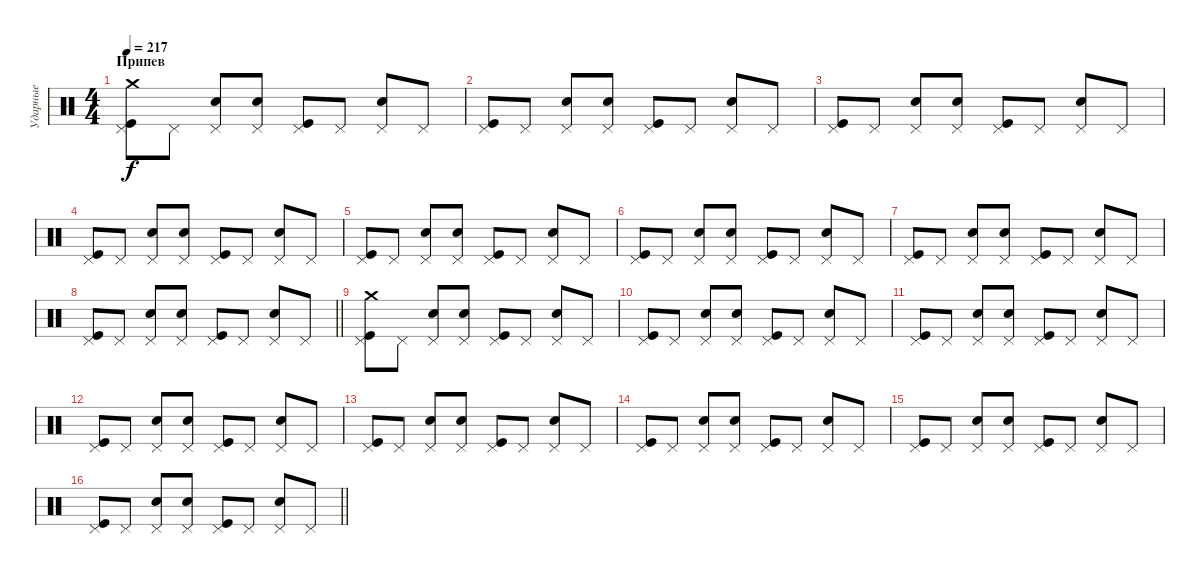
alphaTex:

\track ("Ударные" "Ударные") {instrument percussion}
\staff {score}
\articulation defaults
\ts (4 4)
\section ("" "Припев")
\tempo 217
\clef neutral
\ks c
("Pedal Hi-Hat (hit)" "Kick (hit)" "Crash medium (hit)").8{dy f} "Pedal Hi-Hat (hit)".8 ("Pedal Hi-Hat (hit)" "Snare (hit) 2").8 ("Pedal Hi-Hat (hit)" "Snare (hit) 2").8 ("Pedal Hi-Hat (hit)" "Kick (hit)").8 "Pedal Hi-Hat (hit)".8 ("Pedal Hi-Hat (hit)" "Snare (hit) 2").8 "Pedal Hi-Hat (hit)".8 |
("Pedal Hi-Hat (hit)" "Kick (hit)").8 "Pedal Hi-Hat (hit)".8 ("Pedal Hi-Hat (hit)" "Snare (hit) 2").8 ("Pedal Hi-Hat (hit)" "Snare (hit) 2").8 ("Pedal Hi-Hat (hit)" "Kick (hit)").8 "Pedal Hi-Hat (hit)".8 ("Pedal Hi-Hat (hit)" "Snare (hit) 2").8 "Pedal Hi-Hat (hit)".8 |
("Pedal Hi-Hat (hit)" "Kick (hit)").8 "Pedal Hi-Hat (hit)".8 ("Pedal Hi-Hat (hit)" "Snare (hit) 2").8 ("Pedal Hi-Hat (hit)" "Snare (hit) 2").8 ("Pedal Hi-Hat (hit)" "Kick (hit)").8 "Pedal Hi-Hat (hit)".8 ("Pedal Hi-Hat (hit)" "Snare (hit) 2").8 "Pedal Hi-Hat (hit)".8 |
("Pedal Hi-Hat (hit)" "Kick (hit)").8 "Pedal Hi-Hat (hit)".8 ("Pedal Hi-Hat (hit)" "Snare (hit) 2").8 ("Pedal Hi-Hat (hit)" "Snare (hit) 2").8 ("Pedal Hi-Hat (hit)" "Kick (hit)").8 "Pedal Hi-Hat (hit)".8 ("Pedal Hi-Hat (hit)" "Snare (hit) 2").8 "Pedal Hi-Hat (hit)".8 |
("Pedal Hi-Hat (hit)" "Kick (hit)").8 "Pedal Hi-Hat (hit)".8 ("Pedal Hi-Hat (hit)" "Snare (hit) 2").8 ("Pedal Hi-Hat (hit)" "Snare (hit) 2").8 ("Pedal Hi-Hat (hit)" "Kick (hit)").8 "Pedal Hi-Hat (hit)".8 ("Pedal Hi-Hat (hit)" "Snare (hit) 2").8 "Pedal Hi-Hat (hit)".8 |
("Pedal Hi-Hat (hit)" "Kick (hit)").8 "Pedal Hi-Hat (hit)".8 ("Pedal Hi-Hat (hit)" "Snare (hit) 2").8 ("Pedal Hi-Hat (hit)" "Snare (hit) 2").8 ("Pedal Hi-Hat (hit)" "Kick (hit)").8 "Pedal Hi-Hat (hit)".8 ("Pedal Hi-Hat (hit)" "Snare (hit) 2").8 "Pedal Hi-Hat (hit)".8 |
("Pedal Hi-Hat (hit)" "Kick (hit)").8 "Pedal Hi-Hat (hit)".8 ("Pedal Hi-Hat (hit)" "Snare (hit) 2").8 ("Pedal Hi-Hat (hit)" "Snare (hit) 2").8 ("Pedal Hi-Hat (hit)" "Kick (hit)").8 "Pedal Hi-Hat (hit)".8 ("Pedal Hi-Hat (hit)" "Snare (hit) 2").8 "Pedal Hi-Hat (hit)".8 |
\barLineRight lightlight
("Pedal Hi-Hat (hit)" "Kick (hit)").8 "Pedal Hi-Hat (hit)".8 ("Pedal Hi-Hat (hit)" "Snare (hit) 2").8 ("Pedal Hi-Hat (hit)" "Snare (hit) 2").8 ("Pedal Hi-Hat (hit)" "Kick (hit)").8 "Pedal Hi-Hat (hit)".8 ("Pedal Hi-Hat (hit)" "Snare (hit) 2").8 "Pedal Hi-Hat (hit)".8 |
("Pedal Hi-Hat (hit)" "Kick (hit)" "Crash medium (hit)").8 "Pedal Hi-Hat (hit)".8 ("Pedal Hi-Hat (hit)" "Snare (hit) 2").8 ("Pedal Hi-Hat (hit)" "Snare (hit) 2").8 ("Pedal Hi-Hat (hit)" "Kick (hit)").8 "Pedal Hi-Hat (hit)".8 ("Pedal Hi-Hat (hit)" "Snare (hit) 2").8 "Pedal Hi-Hat (hit)".8 |
("Pedal Hi-Hat (hit)" "Kick (hit)").8 "Pedal Hi-Hat (hit)".8 ("Pedal Hi-Hat (hit)" "Snare (hit) 2").8 ("Pedal Hi-Hat (hit)" "Snare (hit) 2").8 ("Pedal Hi-Hat (hit)" "Kick (hit)").8 "Pedal Hi-Hat (hit)".8 ("Pedal Hi-Hat (hit)" "Snare (hit) 2").8 "Pedal Hi-Hat (hit)".8 |
("Pedal Hi-Hat (hit)" "Kick (hit)").8 "Pedal Hi-Hat (hit)".8 ("Pedal Hi-Hat (hit)" "Snare (hit) 2").8 ("Pedal Hi-Hat (hit)" "Snare (hit) 2").8 ("Pedal Hi-Hat (hit)" "Kick (hit)").8 "Pedal Hi-Hat (hit)".8 ("Pedal Hi-Hat (hit)" "Snare (hit) 2").8 "Pedal Hi-Hat (hit)".8 |
("Pedal Hi-Hat (hit)" "Kick (hit)").8 "Pedal Hi-Hat (hit)".8 ("Pedal Hi-Hat (hit)" "Snare (hit) 2").8 ("Pedal Hi-Hat (hit)" "Snare (hit) 2").8 ("Pedal Hi-Hat (hit)" "Kick (hit)").8 "Pedal Hi-Hat (hit)".8 ("Pedal Hi-Hat (hit)" "Snare (hit) 2").8 "Pedal Hi-Hat (hit)".8 |
("Pedal Hi-Hat (hit)" "Kick (hit)").8 "Pedal Hi-Hat (hit)".8 ("Pedal Hi-Hat (hit)" "Snare (hit) 2").8 ("Pedal Hi-Hat (hit)" "Snare (hit) 2").8 ("Pedal Hi-Hat (hit)" "Kick (hit)").8 "Pedal Hi-Hat (hit)".8 ("Pedal Hi-Hat (hit)" "Snare (hit) 2").8 "Pedal Hi-Hat (hit)".8 |
("Pedal Hi-Hat (hit)" "Kick (hit)").8 "Pedal Hi-Hat (hit)".8 ("Pedal Hi-Hat (hit)" "Snare (hit) 2").8 ("Pedal Hi-Hat (hit)" "Snare (hit) 2").8 ("Pedal Hi-Hat (hit)" "Kick (hit)").8 "Pedal Hi-Hat (hit)".8 ("Pedal Hi-Hat (hit)" "Snare (hit) 2").8 "Pedal Hi-Hat (hit)".8 |
("Pedal Hi-Hat (hit)" "Kick (hit)").8 "Pedal Hi-Hat (hit)".8 ("Pedal Hi-Hat (hit)" "Snare (hit) 2").8 ("Pedal Hi-Hat (hit)" "Snare (hit) 2").8 ("Pedal Hi-Hat (hit)" "Kick (hit)").8 "Pedal Hi-Hat (hit)".8 ("Pedal Hi-Hat (hit)" "Snare (hit) 2").8 "Pedal Hi-Hat (hit)".8 |
\barLineRight lightlight
("Pedal Hi-Hat (hit)" "Kick (hit)").8 "Pedal Hi-Hat (hit)".8 ("Pedal Hi-Hat (hit)" "Snare (hit) 2").8 ("Pedal Hi-Hat (hit)" "Snare (hit) 2").8 ("Pedal Hi-Hat (hit)" "Kick (hit)").8 "Pedal Hi-Hat (hit)".8 ("Pedal Hi-Hat (hit)" "Snare (hit) 2").8 "Pedal Hi-Hat (hit)".8
